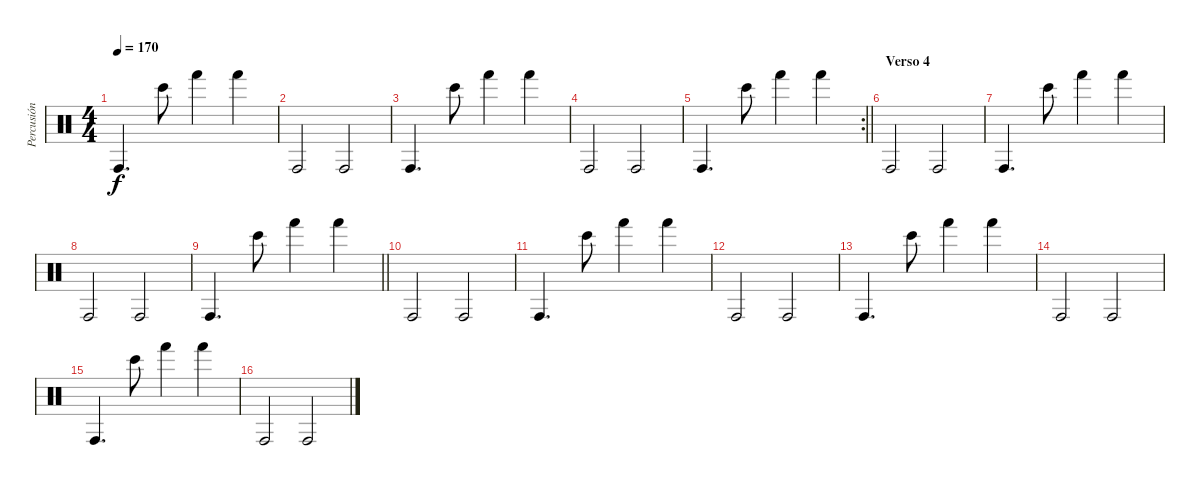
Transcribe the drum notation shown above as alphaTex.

\track ("Percusión" "Percusión") {instrument percussion}
\staff {score}
\articulation defaults
\ts (4 4)
\tempo 170
\clef neutral
\ks c "Conga high (hit)".4{d dy f} "Bongo High (hit)".8 "Hand (hit)".4 "Hand (hit)".4
|
"Conga high (hit)".2 "Conga high (hit)".2 |
"Conga high (hit)".4{d} "Bongo High (hit)".8 "Hand (hit)".4 "Hand (hit)".4 |
"Conga high (hit)".2 "Conga high (hit)".2 |
\rc 2
\barLineRight lightlight "Conga high (hit)".4{d} "Bongo High (hit)".8 "Hand (hit)".4 "Hand (hit)".4
|
\section ("" "Verso 4")
"Conga high (hit)".2 "Conga high (hit)".2 |
"Conga high (hit)".4{d} "Bongo High (hit)".8 "Hand (hit)".4 "Hand (hit)".4 |
"Conga high (hit)".2 "Conga high (hit)".2 |
\barLineRight lightlight "Conga high (hit)".4{d} "Bongo High (hit)".8 "Hand (hit)".4 "Hand (hit)".4
|
"Conga high (hit)".2 "Conga high (hit)".2 |
"Conga high (hit)".4{d} "Bongo High (hit)".8 "Hand (hit)".4 "Hand (hit)".4 |
"Conga high (hit)".2 "Conga high (hit)".2 |
"Conga high (hit)".4{d} "Bongo High (hit)".8 "Hand (hit)".4 "Hand (hit)".4 |
"Conga high (hit)".2 "Conga high (hit)".2 |
"Conga high (hit)".4{d} "Bongo High (hit)".8 "Hand (hit)".4 "Hand (hit)".4 |
"Conga high (hit)".2 "Conga high (hit)".2
